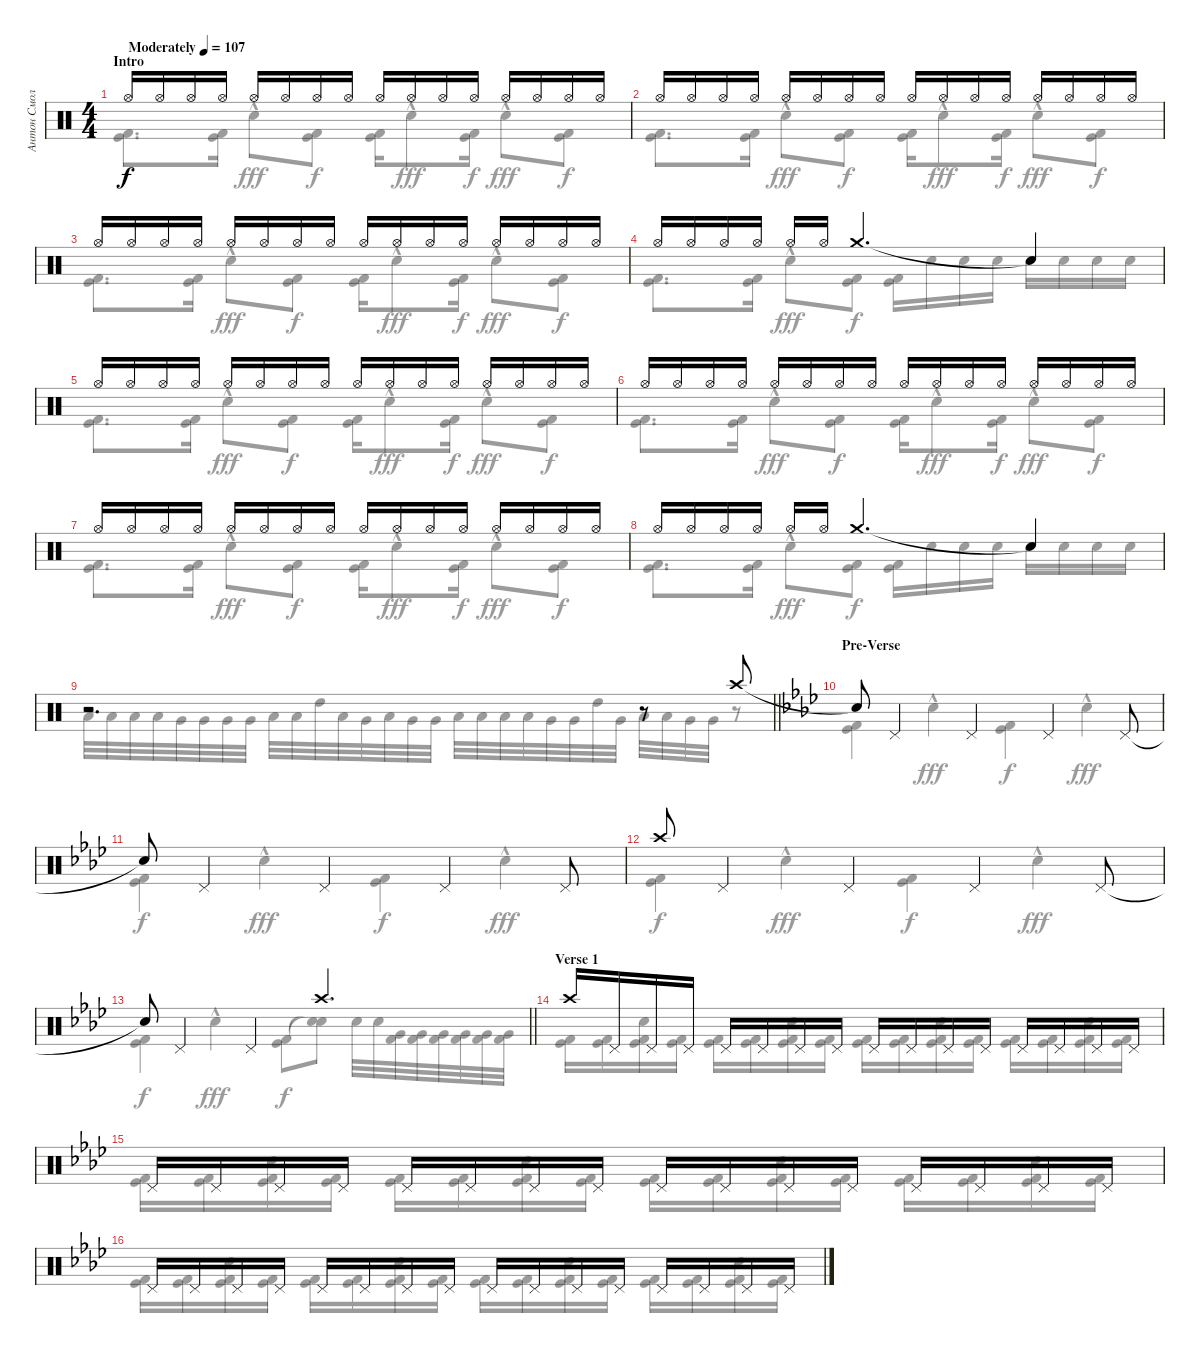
\track ("Антон Смольянин" "Антон Смол") {instrument percussion}
\staff {score}
\articulation defaults
\voice
\ts (4 4)
\section ("" "Intro")
\tempo (107 "Moderately")
\clef neutral
\ks c "Hi-Hat (open)".16{dy f} "Hi-Hat (open)".16 "Hi-Hat (open)".16 "Hi-Hat (open)".16 "Hi-Hat (open)".16 "Hi-Hat (open)".16 "Hi-Hat (open)".16 "Hi-Hat (open)".16 "Hi-Hat (open)".16 "Hi-Hat (open)".16 "Hi-Hat (open)".16 "Hi-Hat (open)".16 "Hi-Hat (open)".16 "Hi-Hat (open)".16 "Hi-Hat (open)".16 "Hi-Hat (open)".16
|
"Hi-Hat (open)".16 "Hi-Hat (open)".16 "Hi-Hat (open)".16 "Hi-Hat (open)".16 "Hi-Hat (open)".16 "Hi-Hat (open)".16 "Hi-Hat (open)".16 "Hi-Hat (open)".16 "Hi-Hat (open)".16 "Hi-Hat (open)".16 "Hi-Hat (open)".16 "Hi-Hat (open)".16 "Hi-Hat (open)".16 "Hi-Hat (open)".16 "Hi-Hat (open)".16 "Hi-Hat (open)".16 |
"Hi-Hat (open)".16 "Hi-Hat (open)".16 "Hi-Hat (open)".16 "Hi-Hat (open)".16 "Hi-Hat (open)".16 "Hi-Hat (open)".16 "Hi-Hat (open)".16 "Hi-Hat (open)".16 "Hi-Hat (open)".16 "Hi-Hat (open)".16 "Hi-Hat (open)".16 "Hi-Hat (open)".16 "Hi-Hat (open)".16 "Hi-Hat (open)".16 "Hi-Hat (open)".16 "Hi-Hat (open)".16 |
"Hi-Hat (open)".16 "Hi-Hat (open)".16 "Hi-Hat (open)".16 "Hi-Hat (open)".16 "Hi-Hat (open)".16 "Hi-Hat (open)".16 "Crash medium (hit)".4{d} "Snare (hit)"{t}.4 |
"Hi-Hat (open)".16 "Hi-Hat (open)".16 "Hi-Hat (open)".16 "Hi-Hat (open)".16 "Hi-Hat (open)".16 "Hi-Hat (open)".16 "Hi-Hat (open)".16 "Hi-Hat (open)".16 "Hi-Hat (open)".16 "Hi-Hat (open)".16 "Hi-Hat (open)".16 "Hi-Hat (open)".16 "Hi-Hat (open)".16 "Hi-Hat (open)".16 "Hi-Hat (open)".16 "Hi-Hat (open)".16 |
"Hi-Hat (open)".16 "Hi-Hat (open)".16 "Hi-Hat (open)".16 "Hi-Hat (open)".16 "Hi-Hat (open)".16 "Hi-Hat (open)".16 "Hi-Hat (open)".16 "Hi-Hat (open)".16 "Hi-Hat (open)".16 "Hi-Hat (open)".16 "Hi-Hat (open)".16 "Hi-Hat (open)".16 "Hi-Hat (open)".16 "Hi-Hat (open)".16 "Hi-Hat (open)".16 "Hi-Hat (open)".16 |
"Hi-Hat (open)".16 "Hi-Hat (open)".16 "Hi-Hat (open)".16 "Hi-Hat (open)".16 "Hi-Hat (open)".16 "Hi-Hat (open)".16 "Hi-Hat (open)".16 "Hi-Hat (open)".16 "Hi-Hat (open)".16 "Hi-Hat (open)".16 "Hi-Hat (open)".16 "Hi-Hat (open)".16 "Hi-Hat (open)".16 "Hi-Hat (open)".16 "Hi-Hat (open)".16 "Hi-Hat (open)".16 |
"Hi-Hat (open)".16 "Hi-Hat (open)".16 "Hi-Hat (open)".16 "Hi-Hat (open)".16 "Hi-Hat (open)".16 "Hi-Hat (open)".16 "Crash medium (hit)".4{d} "Snare (hit)"{t}.4 |
\barLineRight lightlight
r.2{d} r.8 "Crash high (hit)".8 |
\section ("" "Pre-Verse")
\ks ab "Snare (hit)"{t}.8 "Pedal Hi-Hat (hit)".4 "Pedal Hi-Hat (hit)".4 "Pedal Hi-Hat (hit)".4 "Pedal Hi-Hat (hit)".8
|
"Snare (hit)"{t}.8 "Pedal Hi-Hat (hit)".4 "Pedal Hi-Hat (hit)".4 "Pedal Hi-Hat (hit)".4 "Pedal Hi-Hat (hit)".8 |
"Crash high (hit)".8 "Pedal Hi-Hat (hit)".4 "Pedal Hi-Hat (hit)".4 "Pedal Hi-Hat (hit)".4 "Pedal Hi-Hat (hit)".8 |
\barLineRight lightlight "Snare (hit)"{t}.8 "Pedal Hi-Hat (hit)".4 "Pedal Hi-Hat (hit)".4 "Crash high (hit)".4{d}
|
\section ("" "Verse 1")
"Crash high (hit)".16 "Pedal Hi-Hat (hit)".16 "Pedal Hi-Hat (hit)".16 "Pedal Hi-Hat (hit)".16 "Pedal Hi-Hat (hit)".16 "Pedal Hi-Hat (hit)".16 "Pedal Hi-Hat (hit)".16 "Pedal Hi-Hat (hit)".16 "Pedal Hi-Hat (hit)".16 "Pedal Hi-Hat (hit)".16 "Pedal Hi-Hat (hit)".16 "Pedal Hi-Hat (hit)".16 "Pedal Hi-Hat (hit)".16 "Pedal Hi-Hat (hit)".16 "Pedal Hi-Hat (hit)".16 "Pedal Hi-Hat (hit)".16 |
"Pedal Hi-Hat (hit)".16 "Pedal Hi-Hat (hit)".16 "Pedal Hi-Hat (hit)".16 "Pedal Hi-Hat (hit)".16 "Pedal Hi-Hat (hit)".16 "Pedal Hi-Hat (hit)".16 "Pedal Hi-Hat (hit)".16 "Pedal Hi-Hat (hit)".16 "Pedal Hi-Hat (hit)".16 "Pedal Hi-Hat (hit)".16 "Pedal Hi-Hat (hit)".16 "Pedal Hi-Hat (hit)".16 "Pedal Hi-Hat (hit)".16 "Pedal Hi-Hat (hit)".16 "Pedal Hi-Hat (hit)".16 "Pedal Hi-Hat (hit)".16 |
"Pedal Hi-Hat (hit)".16 "Pedal Hi-Hat (hit)".16 "Pedal Hi-Hat (hit)".16 "Pedal Hi-Hat (hit)".16 "Pedal Hi-Hat (hit)".16 "Pedal Hi-Hat (hit)".16 "Pedal Hi-Hat (hit)".16 "Pedal Hi-Hat (hit)".16 "Pedal Hi-Hat (hit)".16 "Pedal Hi-Hat (hit)".16 "Pedal Hi-Hat (hit)".16 "Pedal Hi-Hat (hit)".16 "Pedal Hi-Hat (hit)".16 "Pedal Hi-Hat (hit)".16 "Pedal Hi-Hat (hit)".16 "Pedal Hi-Hat (hit)".16
\voice
\clef neutral
\ottava regular
\simile none
\ks c
("Kick (hit)" "Kick (hit) 2").8{d dy f} ("Kick (hit)" "Kick (hit) 2").16 "Snare (hit) 2"{hac}.8{dy fff} ("Kick (hit)" "Kick (hit) 2").8{dy f} ("Kick (hit)" "Kick (hit) 2").16 "Snare (hit) 2"{hac}.8{dy fff} ("Kick (hit)" "Kick (hit) 2").16{dy f} "Snare (hit) 2"{hac}.8{dy fff} ("Kick (hit)" "Kick (hit) 2").8{dy f} |
("Kick (hit)" "Kick (hit) 2").8{d} ("Kick (hit)" "Kick (hit) 2").16 "Snare (hit) 2"{hac}.8{dy fff} ("Kick (hit)" "Kick (hit) 2").8{dy f} ("Kick (hit)" "Kick (hit) 2").16 "Snare (hit) 2"{hac}.8{dy fff} ("Kick (hit)" "Kick (hit) 2").16{dy f} "Snare (hit) 2"{hac}.8{dy fff} ("Kick (hit)" "Kick (hit) 2").8{dy f} |
("Kick (hit)" "Kick (hit) 2").8{d} ("Kick (hit)" "Kick (hit) 2").16 "Snare (hit) 2"{hac}.8{dy fff} ("Kick (hit)" "Kick (hit) 2").8{dy f} ("Kick (hit)" "Kick (hit) 2").16 "Snare (hit) 2"{hac}.8{dy fff} ("Kick (hit)" "Kick (hit) 2").16{dy f} "Snare (hit) 2"{hac}.8{dy fff} ("Kick (hit)" "Kick (hit) 2").8{dy f} |
("Kick (hit)" "Kick (hit) 2").8{d} ("Kick (hit)" "Kick (hit) 2").16 "Snare (hit) 2"{hac}.8{dy fff} ("Kick (hit)" "Kick (hit) 2").8{dy f} ("Kick (hit)" "Kick (hit) 2").16 "Snare (hit) 2".16 "Snare (hit) 2".16 "Snare (hit) 2".16 "Snare (hit) 2".16 "Snare (hit) 2".16 "Snare (hit) 2".16 "Snare (hit) 2".16 |
("Kick (hit)" "Kick (hit) 2").8{d} ("Kick (hit)" "Kick (hit) 2").16 "Snare (hit) 2"{hac}.8{dy fff} ("Kick (hit)" "Kick (hit) 2").8{dy f} ("Kick (hit)" "Kick (hit) 2").16 "Snare (hit) 2"{hac}.8{dy fff} ("Kick (hit)" "Kick (hit) 2").16{dy f} "Snare (hit) 2"{hac}.8{dy fff} ("Kick (hit)" "Kick (hit) 2").8{dy f} |
("Kick (hit)" "Kick (hit) 2").8{d} ("Kick (hit)" "Kick (hit) 2").16 "Snare (hit) 2"{hac}.8{dy fff} ("Kick (hit)" "Kick (hit) 2").8{dy f} ("Kick (hit)" "Kick (hit) 2").16 "Snare (hit) 2"{hac}.8{dy fff} ("Kick (hit)" "Kick (hit) 2").16{dy f} "Snare (hit) 2"{hac}.8{dy fff} ("Kick (hit)" "Kick (hit) 2").8{dy f} |
("Kick (hit)" "Kick (hit) 2").8{d} ("Kick (hit)" "Kick (hit) 2").16 "Snare (hit) 2"{hac}.8{dy fff} ("Kick (hit)" "Kick (hit) 2").8{dy f} ("Kick (hit)" "Kick (hit) 2").16 "Snare (hit) 2"{hac}.8{dy fff} ("Kick (hit)" "Kick (hit) 2").16{dy f} "Snare (hit) 2"{hac}.8{dy fff} ("Kick (hit)" "Kick (hit) 2").8{dy f} |
("Kick (hit)" "Kick (hit) 2").8{d} ("Kick (hit)" "Kick (hit) 2").16 "Snare (hit) 2"{hac}.8{dy fff} ("Kick (hit)" "Kick (hit) 2").8{dy f} ("Kick (hit)" "Kick (hit) 2").16 "Snare (hit) 2".16 "Snare (hit) 2".16 "Snare (hit) 2".16 "Snare (hit) 2".16 "Snare (hit) 2".16 "Snare (hit) 2".16 "Snare (hit) 2".16 |
\barLineRight lightlight "Low Tom (hit)".32 "Low Tom (hit)".32 "Low Tom (hit)".32 "Low Tom (hit)".32 "Very Low Tom (hit)".32 "Very Low Tom (hit)".32 "Very Low Tom (hit)".32 "Very Low Tom (hit)".32 "Low Tom (hit)".32 "Low Tom (hit)".32 "High Tom (hit)".32 "Low Tom (hit)".32 "Very Low Tom (hit)".32 "Low Tom (hit)".32 "Very Low Tom (hit)".32 "Very Low Tom (hit)".32 "Low Tom (hit)".32 "Low Tom (hit)".32 "Low Tom (hit)".32 "Low Tom (hit)".32 "Very Low Tom (hit)".32 "Very Low Tom (hit)".32 "High Tom (hit)".32 "Very Low Tom (hit)".32 "Low Floor Tom (hit)".32 "Low Floor Tom (hit)".32 "Very Low Tom (hit)".32 "Very Low Tom (hit)".32
r.8 |
\ks ab
("Kick (hit)" "Kick (hit) 2").4 "Snare (hit) 2"{hac}.4{dy fff} ("Kick (hit)" "Kick (hit) 2").4{dy f} "Snare (hit) 2"{hac}.4{dy fff} |
("Kick (hit)" "Kick (hit) 2").4{dy f} "Snare (hit) 2"{hac}.4{dy fff} ("Kick (hit)" "Kick (hit) 2").4{dy f} "Snare (hit) 2"{hac}.4{dy fff} |
("Kick (hit)" "Kick (hit) 2").4{dy f} "Snare (hit) 2"{hac}.4{dy fff} ("Kick (hit)" "Kick (hit) 2").4{dy f} "Snare (hit) 2"{hac}.4{dy fff} |
\barLineRight lightlight
("Kick (hit)" "Kick (hit) 2").4{dy f} "Snare (hit) 2"{hac}.4{dy fff} ("Kick (hit)" "Kick (hit) 2").8{dy f} ("Snare (hit)"{t} "Snare (hit)"{t}).8 "Snare (hit) 2".32 "Snare (hit) 2".32 ("Kick (hit) 2" "Very Low Tom (hit)").32 ("Kick (hit) 2" "Very Low Tom (hit)").32 ("Kick (hit) 2" "Very Low Tom (hit)").32 ("Kick (hit) 2" "Very Low Tom (hit)").32 ("Kick (hit) 2" "Very Low Tom (hit)").32 ("Kick (hit) 2" "Very Low Tom (hit)").32 |
("Kick (hit)" "Kick (hit) 2").16 ("Kick (hit)" "Kick (hit) 2").16 ("Kick (hit)" "Kick (hit) 2" "Snare (hit) 2").16 ("Kick (hit)" "Kick (hit) 2").16 ("Kick (hit)" "Kick (hit) 2").16 ("Kick (hit)" "Kick (hit) 2").16 ("Kick (hit)" "Kick (hit) 2" "Snare (hit) 2").16 ("Kick (hit)" "Kick (hit) 2").16 ("Kick (hit)" "Kick (hit) 2").16 ("Kick (hit)" "Kick (hit) 2").16 ("Kick (hit)" "Kick (hit) 2" "Snare (hit) 2").16 ("Kick (hit)" "Kick (hit) 2").16 ("Kick (hit)" "Kick (hit) 2").16 ("Kick (hit)" "Kick (hit) 2").16 ("Kick (hit)" "Kick (hit) 2" "Snare (hit) 2").16 ("Kick (hit)" "Kick (hit) 2").16 |
("Kick (hit)" "Kick (hit) 2").16 ("Kick (hit)" "Kick (hit) 2").16 ("Kick (hit)" "Kick (hit) 2" "Snare (hit) 2").16 ("Kick (hit)" "Kick (hit) 2").16 ("Kick (hit)" "Kick (hit) 2").16 ("Kick (hit)" "Kick (hit) 2").16 ("Kick (hit)" "Kick (hit) 2" "Snare (hit) 2").16 ("Kick (hit)" "Kick (hit) 2").16 ("Kick (hit)" "Kick (hit) 2").16 ("Kick (hit)" "Kick (hit) 2").16 ("Kick (hit)" "Kick (hit) 2" "Snare (hit) 2").16 ("Kick (hit)" "Kick (hit) 2").16 ("Kick (hit)" "Kick (hit) 2").16 ("Kick (hit)" "Kick (hit) 2").16 ("Kick (hit)" "Kick (hit) 2" "Snare (hit) 2").16 ("Kick (hit)" "Kick (hit) 2").16 |
("Kick (hit)" "Kick (hit) 2").16 ("Kick (hit)" "Kick (hit) 2").16 ("Kick (hit)" "Kick (hit) 2" "Snare (hit) 2").16 ("Kick (hit)" "Kick (hit) 2").16 ("Kick (hit)" "Kick (hit) 2").16 ("Kick (hit)" "Kick (hit) 2").16 ("Kick (hit)" "Kick (hit) 2" "Snare (hit) 2").16 ("Kick (hit)" "Kick (hit) 2").16 ("Kick (hit)" "Kick (hit) 2").16 ("Kick (hit)" "Kick (hit) 2").16 ("Kick (hit)" "Kick (hit) 2" "Snare (hit) 2").16 ("Kick (hit)" "Kick (hit) 2").16 ("Kick (hit)" "Kick (hit) 2").16 ("Kick (hit)" "Kick (hit) 2").16 ("Kick (hit)" "Kick (hit) 2" "Snare (hit) 2").16 ("Kick (hit)" "Kick (hit) 2").16
